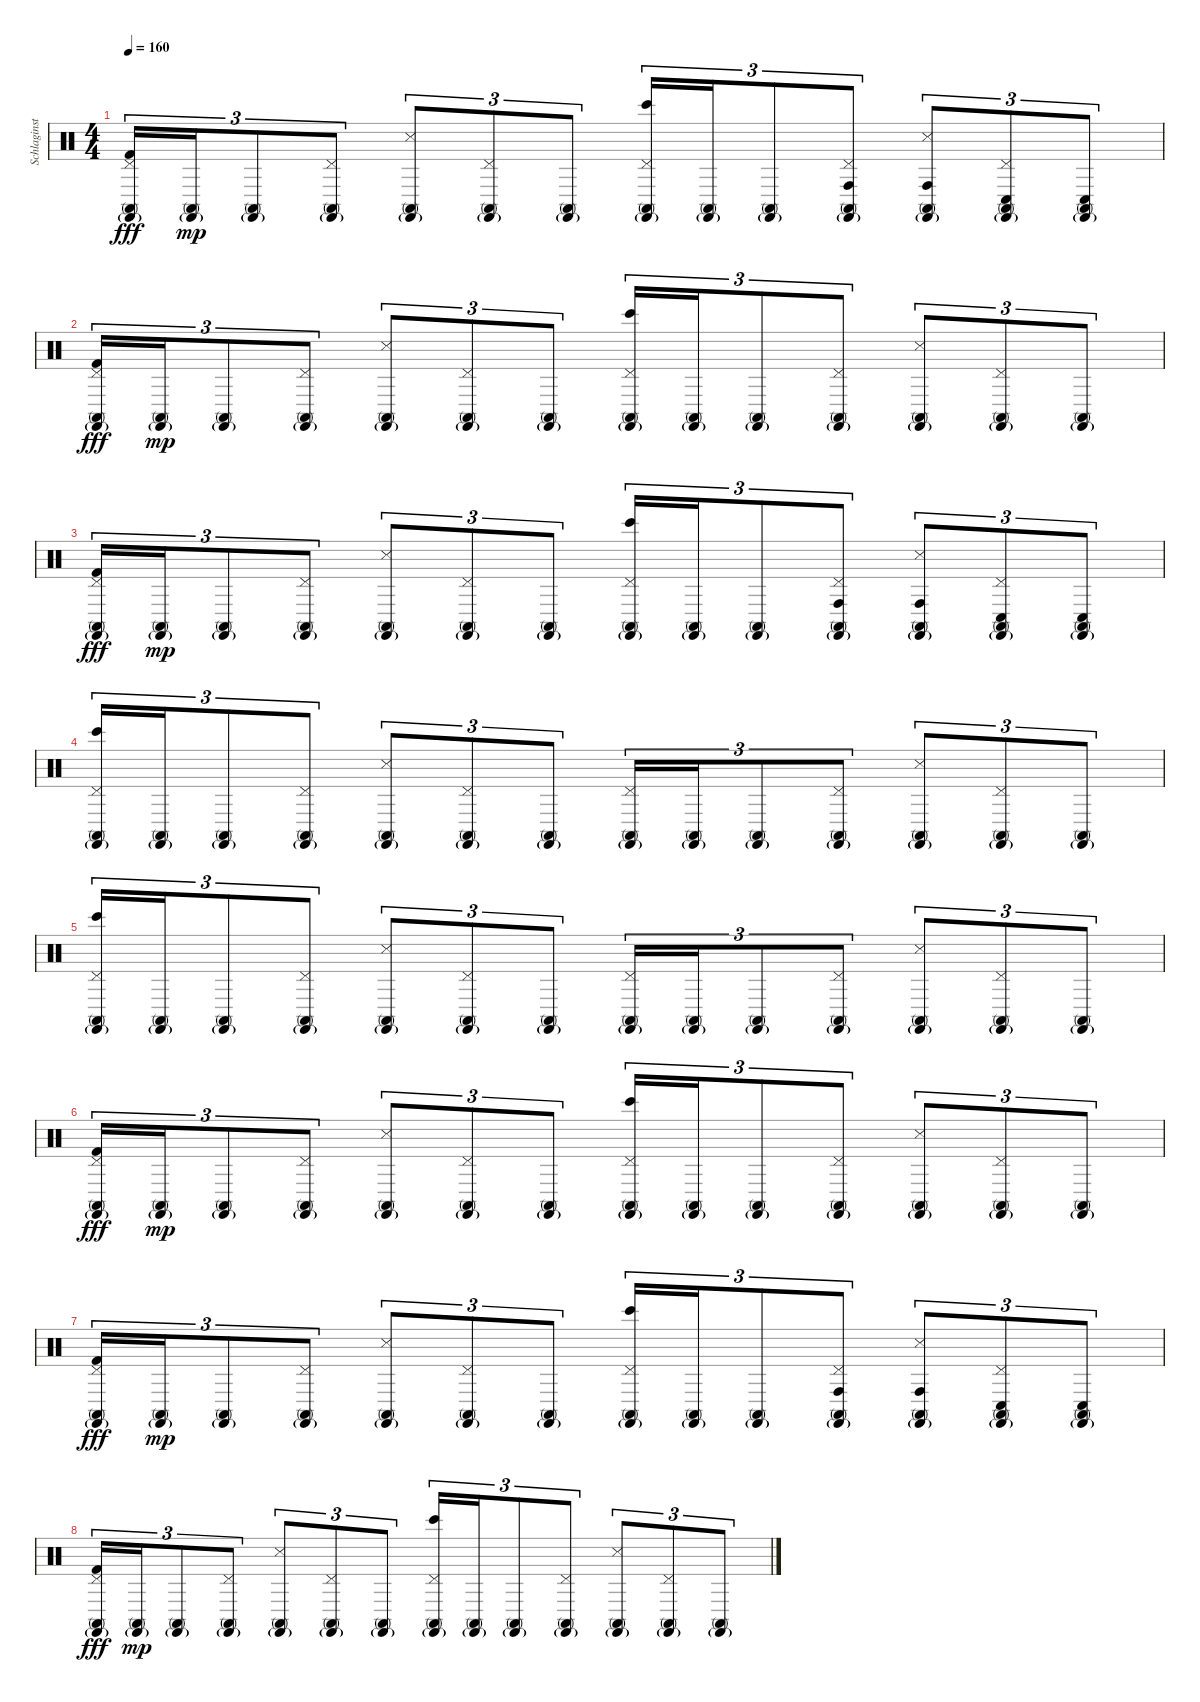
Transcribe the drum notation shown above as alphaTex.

\track ("Schlaginstrumente - Auswahl" "Schlaginst") {instrument percussion}
\staff {score}
\articulation defaults
\ts (4 4)
\tempo 160
\clef neutral
\ks c
("Pedal Hi-Hat (hit)" "Castanets (hit)"{g} "Kick (hit) 2" "Conga high (mute)").16{tu (3 2) dy fff} ("Castanets (hit)"{g} "Conga high (mute)").16{tu (3 2) dy mp} ("Castanets (hit)"{g} "Conga high (mute)").8{tu (3 2)} ("Pedal Hi-Hat (hit)" "Castanets (hit)"{g} "Conga high (mute)").8{tu (3 2)} ("Castanets (hit)"{g} "Snare (side stick) 3" "Conga high (mute)").8{tu (3 2)} ("Pedal Hi-Hat (hit)" "Castanets (hit)"{g} "Conga high (mute)").8{tu (3 2)} ("Castanets (hit)"{g} "Conga high (mute)").8{tu (3 2)} ("Pedal Hi-Hat (hit)" "Castanets (hit)"{g} "Bongo High (hit)" "Conga high (mute)").16{tu (3 2)} ("Castanets (hit)"{g} "Conga high (mute)").16{tu (3 2)} ("Castanets (hit)"{g} "Conga high (mute)").8{tu (3 2)} ("Pedal Hi-Hat (hit)" "Castanets (hit)"{g} "Conga high (hit)" "Conga high (mute)").8{tu (3 2)} ("Castanets (hit)"{g} "Snare (side stick) 3" "Conga high (hit)" "Conga high (mute)").8{tu (3 2)} ("Pedal Hi-Hat (hit)" "Castanets (hit)"{g} "Conga low (hit)" "Conga high (mute)").8{tu (3 2)} ("Castanets (hit)"{g} "Conga low (hit)" "Conga high (mute)").8{tu (3 2)} |
("Pedal Hi-Hat (hit)" "Castanets (hit)"{g} "Kick (hit) 2" "Conga high (mute)").16{tu (3 2) dy fff} ("Castanets (hit)"{g} "Conga high (mute)").16{tu (3 2) dy mp} ("Castanets (hit)"{g} "Conga high (mute)").8{tu (3 2)} ("Pedal Hi-Hat (hit)" "Castanets (hit)"{g} "Conga high (mute)").8{tu (3 2)} ("Castanets (hit)"{g} "Snare (side stick) 3" "Conga high (mute)").8{tu (3 2)} ("Pedal Hi-Hat (hit)" "Castanets (hit)"{g} "Conga high (mute)").8{tu (3 2)} ("Castanets (hit)"{g} "Conga high (mute)").8{tu (3 2)} ("Pedal Hi-Hat (hit)" "Castanets (hit)"{g} "Bongo High (hit)" "Conga high (mute)").16{tu (3 2)} ("Castanets (hit)"{g} "Conga high (mute)").16{tu (3 2)} ("Castanets (hit)"{g} "Conga high (mute)").8{tu (3 2)} ("Pedal Hi-Hat (hit)" "Castanets (hit)"{g} "Conga high (mute)").8{tu (3 2)} ("Castanets (hit)"{g} "Snare (side stick) 3" "Conga high (mute)").8{tu (3 2)} ("Pedal Hi-Hat (hit)" "Castanets (hit)"{g} "Conga high (mute)").8{tu (3 2)} ("Castanets (hit)"{g} "Conga high (mute)").8{tu (3 2)} |
("Pedal Hi-Hat (hit)" "Castanets (hit)"{g} "Kick (hit) 2" "Conga high (mute)").16{tu (3 2) dy fff} ("Castanets (hit)"{g} "Conga high (mute)").16{tu (3 2) dy mp} ("Castanets (hit)"{g} "Conga high (mute)").8{tu (3 2)} ("Pedal Hi-Hat (hit)" "Castanets (hit)"{g} "Conga high (mute)").8{tu (3 2)} ("Castanets (hit)"{g} "Snare (side stick) 3" "Conga high (mute)").8{tu (3 2)} ("Pedal Hi-Hat (hit)" "Castanets (hit)"{g} "Conga high (mute)").8{tu (3 2)} ("Castanets (hit)"{g} "Conga high (mute)").8{tu (3 2)} ("Pedal Hi-Hat (hit)" "Castanets (hit)"{g} "Bongo High (hit)" "Conga high (mute)").16{tu (3 2)} ("Castanets (hit)"{g} "Conga high (mute)").16{tu (3 2)} ("Castanets (hit)"{g} "Conga high (mute)").8{tu (3 2)} ("Pedal Hi-Hat (hit)" "Castanets (hit)"{g} "Conga high (hit)" "Conga high (mute)").8{tu (3 2)} ("Castanets (hit)"{g} "Snare (side stick) 3" "Conga high (hit)" "Conga high (mute)").8{tu (3 2)} ("Pedal Hi-Hat (hit)" "Castanets (hit)"{g} "Conga low (hit)" "Conga high (mute)").8{tu (3 2)} ("Castanets (hit)"{g} "Conga low (hit)" "Conga high (mute)").8{tu (3 2)} |
("Pedal Hi-Hat (hit)" "Castanets (hit)"{g} "Bongo High (hit)" "Conga high (mute)").16{tu (3 2)} ("Castanets (hit)"{g} "Conga high (mute)").16{tu (3 2)} ("Castanets (hit)"{g} "Conga high (mute)").8{tu (3 2)} ("Pedal Hi-Hat (hit)" "Castanets (hit)"{g} "Conga high (mute)").8{tu (3 2)} ("Castanets (hit)"{g} "Snare (side stick) 3" "Conga high (mute)").8{tu (3 2)} ("Pedal Hi-Hat (hit)" "Castanets (hit)"{g} "Conga high (mute)").8{tu (3 2)} ("Castanets (hit)"{g} "Conga high (mute)").8{tu (3 2)} ("Pedal Hi-Hat (hit)" "Castanets (hit)"{g} "Conga high (mute)").16{tu (3 2)} ("Castanets (hit)"{g} "Conga high (mute)").16{tu (3 2)} ("Castanets (hit)"{g} "Conga high (mute)").8{tu (3 2)} ("Pedal Hi-Hat (hit)" "Castanets (hit)"{g} "Conga high (mute)").8{tu (3 2)} ("Castanets (hit)"{g} "Snare (side stick) 3" "Conga high (mute)").8{tu (3 2)} ("Pedal Hi-Hat (hit)" "Castanets (hit)"{g} "Conga high (mute)").8{tu (3 2)} ("Castanets (hit)"{g} "Conga high (mute)").8{tu (3 2)} |
("Pedal Hi-Hat (hit)" "Castanets (hit)"{g} "Bongo High (hit)" "Conga high (mute)").16{tu (3 2)} ("Castanets (hit)"{g} "Conga high (mute)").16{tu (3 2)} ("Castanets (hit)"{g} "Conga high (mute)").8{tu (3 2)} ("Pedal Hi-Hat (hit)" "Castanets (hit)"{g} "Conga high (mute)").8{tu (3 2)} ("Castanets (hit)"{g} "Snare (side stick) 3" "Conga high (mute)").8{tu (3 2)} ("Pedal Hi-Hat (hit)" "Castanets (hit)"{g} "Conga high (mute)").8{tu (3 2)} ("Castanets (hit)"{g} "Conga high (mute)").8{tu (3 2)} ("Pedal Hi-Hat (hit)" "Castanets (hit)"{g} "Conga high (mute)").16{tu (3 2)} ("Castanets (hit)"{g} "Conga high (mute)").16{tu (3 2)} ("Castanets (hit)"{g} "Conga high (mute)").8{tu (3 2)} ("Pedal Hi-Hat (hit)" "Castanets (hit)"{g} "Conga high (mute)").8{tu (3 2)} ("Castanets (hit)"{g} "Snare (side stick) 3" "Conga high (mute)").8{tu (3 2)} ("Pedal Hi-Hat (hit)" "Castanets (hit)"{g} "Conga high (mute)").8{tu (3 2)} ("Castanets (hit)"{g} "Conga high (mute)").8{tu (3 2)} |
("Pedal Hi-Hat (hit)" "Castanets (hit)"{g} "Kick (hit) 2" "Conga high (mute)").16{tu (3 2) dy fff} ("Castanets (hit)"{g} "Conga high (mute)").16{tu (3 2) dy mp} ("Castanets (hit)"{g} "Conga high (mute)").8{tu (3 2)} ("Pedal Hi-Hat (hit)" "Castanets (hit)"{g} "Conga high (mute)").8{tu (3 2)} ("Castanets (hit)"{g} "Snare (side stick) 3" "Conga high (mute)").8{tu (3 2)} ("Pedal Hi-Hat (hit)" "Castanets (hit)"{g} "Conga high (mute)").8{tu (3 2)} ("Castanets (hit)"{g} "Conga high (mute)").8{tu (3 2)} ("Pedal Hi-Hat (hit)" "Castanets (hit)"{g} "Bongo High (hit)" "Conga high (mute)").16{tu (3 2)} ("Castanets (hit)"{g} "Conga high (mute)").16{tu (3 2)} ("Castanets (hit)"{g} "Conga high (mute)").8{tu (3 2)} ("Pedal Hi-Hat (hit)" "Castanets (hit)"{g} "Conga high (mute)").8{tu (3 2)} ("Castanets (hit)"{g} "Snare (side stick) 3" "Conga high (mute)").8{tu (3 2)} ("Pedal Hi-Hat (hit)" "Castanets (hit)"{g} "Conga high (mute)").8{tu (3 2)} ("Castanets (hit)"{g} "Conga high (mute)").8{tu (3 2)} |
("Pedal Hi-Hat (hit)" "Castanets (hit)"{g} "Kick (hit) 2" "Conga high (mute)").16{tu (3 2) dy fff} ("Castanets (hit)"{g} "Conga high (mute)").16{tu (3 2) dy mp} ("Castanets (hit)"{g} "Conga high (mute)").8{tu (3 2)} ("Pedal Hi-Hat (hit)" "Castanets (hit)"{g} "Conga high (mute)").8{tu (3 2)} ("Castanets (hit)"{g} "Snare (side stick) 3" "Conga high (mute)").8{tu (3 2)} ("Pedal Hi-Hat (hit)" "Castanets (hit)"{g} "Conga high (mute)").8{tu (3 2)} ("Castanets (hit)"{g} "Conga high (mute)").8{tu (3 2)} ("Pedal Hi-Hat (hit)" "Castanets (hit)"{g} "Bongo High (hit)" "Conga high (mute)").16{tu (3 2)} ("Castanets (hit)"{g} "Conga high (mute)").16{tu (3 2)} ("Castanets (hit)"{g} "Conga high (mute)").8{tu (3 2)} ("Pedal Hi-Hat (hit)" "Castanets (hit)"{g} "Conga high (hit)" "Conga high (mute)").8{tu (3 2)} ("Castanets (hit)"{g} "Snare (side stick) 3" "Conga high (hit)" "Conga high (mute)").8{tu (3 2)} ("Pedal Hi-Hat (hit)" "Castanets (hit)"{g} "Conga low (hit)" "Conga high (mute)").8{tu (3 2)} ("Castanets (hit)"{g} "Conga low (hit)" "Conga high (mute)").8{tu (3 2)} |
("Pedal Hi-Hat (hit)" "Castanets (hit)"{g} "Kick (hit) 2" "Conga high (mute)").16{tu (3 2) dy fff} ("Castanets (hit)"{g} "Conga high (mute)").16{tu (3 2) dy mp} ("Castanets (hit)"{g} "Conga high (mute)").8{tu (3 2)} ("Pedal Hi-Hat (hit)" "Castanets (hit)"{g} "Conga high (mute)").8{tu (3 2)} ("Castanets (hit)"{g} "Snare (side stick) 3" "Conga high (mute)").8{tu (3 2)} ("Pedal Hi-Hat (hit)" "Castanets (hit)"{g} "Conga high (mute)").8{tu (3 2)} ("Castanets (hit)"{g} "Conga high (mute)").8{tu (3 2)} ("Pedal Hi-Hat (hit)" "Castanets (hit)"{g} "Bongo High (hit)" "Conga high (mute)").16{tu (3 2)} ("Castanets (hit)"{g} "Conga high (mute)").16{tu (3 2)} ("Castanets (hit)"{g} "Conga high (mute)").8{tu (3 2)} ("Pedal Hi-Hat (hit)" "Castanets (hit)"{g} "Conga high (mute)").8{tu (3 2)} ("Castanets (hit)"{g} "Snare (side stick) 3" "Conga high (mute)").8{tu (3 2)} ("Pedal Hi-Hat (hit)" "Castanets (hit)"{g} "Conga high (mute)").8{tu (3 2)} ("Castanets (hit)"{g} "Conga high (mute)").8{tu (3 2)}
